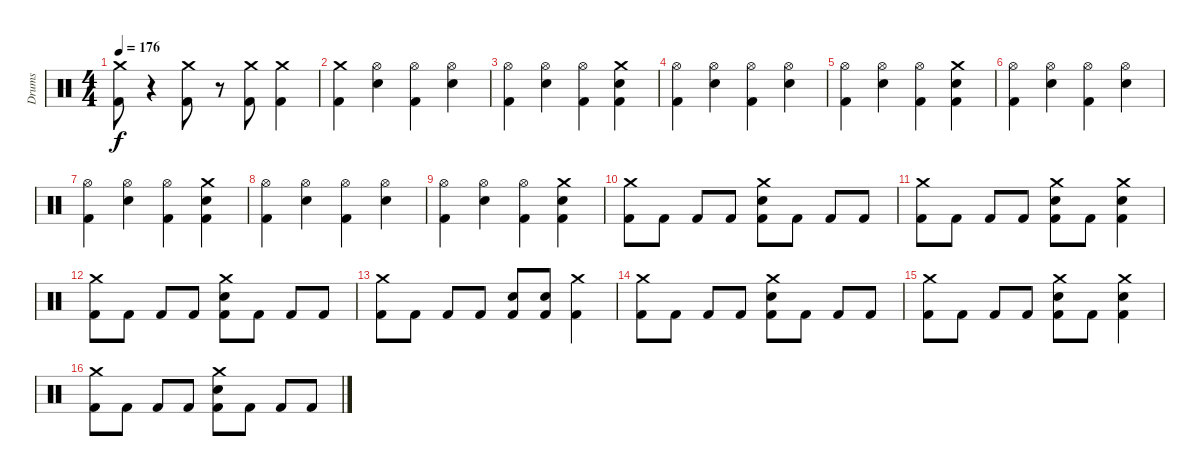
\track ("Drums" "Drums") {instrument percussion}
\staff {score}
\articulation defaults
\ts (4 4)
\tempo 176
\clef neutral
\ks c
("Crash medium (hit)" "Kick (hit) 2").8{dy f} r.4 ("Crash medium (hit)" "Kick (hit) 2").8 r.8 ("Crash medium (hit)" "Kick (hit) 2").8 ("Crash medium (hit)" "Kick (hit) 2").4 |
("Crash medium (hit)" "Kick (hit) 2").4 ("Hi-Hat (open)" "Snare (hit) 2").4 ("Hi-Hat (open)" "Kick (hit) 2").4 ("Hi-Hat (open)" "Snare (hit) 2").4 |
("Hi-Hat (open)" "Kick (hit) 2").4 ("Hi-Hat (open)" "Snare (hit) 2").4 ("Hi-Hat (open)" "Kick (hit) 2").4 ("Crash medium (hit)" "Snare (hit) 2" "Kick (hit) 2").4 |
("Hi-Hat (open)" "Kick (hit) 2").4 ("Hi-Hat (open)" "Snare (hit) 2").4 ("Hi-Hat (open)" "Kick (hit) 2").4 ("Hi-Hat (open)" "Snare (hit) 2").4 |
("Hi-Hat (open)" "Kick (hit) 2").4 ("Hi-Hat (open)" "Snare (hit) 2").4 ("Hi-Hat (open)" "Kick (hit) 2").4 ("Crash medium (hit)" "Snare (hit) 2" "Kick (hit) 2").4 |
("Hi-Hat (open)" "Kick (hit) 2").4 ("Hi-Hat (open)" "Snare (hit) 2").4 ("Hi-Hat (open)" "Kick (hit) 2").4 ("Hi-Hat (open)" "Snare (hit) 2").4 |
("Hi-Hat (open)" "Kick (hit) 2").4 ("Hi-Hat (open)" "Snare (hit) 2").4 ("Hi-Hat (open)" "Kick (hit) 2").4 ("Crash medium (hit)" "Snare (hit) 2" "Kick (hit) 2").4 |
("Hi-Hat (open)" "Kick (hit) 2").4 ("Hi-Hat (open)" "Snare (hit) 2").4 ("Hi-Hat (open)" "Kick (hit) 2").4 ("Hi-Hat (open)" "Snare (hit) 2").4 |
("Hi-Hat (open)" "Kick (hit) 2").4 ("Hi-Hat (open)" "Snare (hit) 2").4 ("Hi-Hat (open)" "Kick (hit) 2").4 ("Crash medium (hit)" "Snare (hit) 2" "Kick (hit) 2").4 |
("Crash medium (hit)" "Kick (hit) 2").8 "Kick (hit) 2".8 "Kick (hit) 2".8 "Kick (hit) 2".8 ("Crash medium (hit)" "Snare (hit) 2" "Kick (hit) 2").8 "Kick (hit) 2".8 "Kick (hit) 2".8 "Kick (hit) 2".8 |
("Crash medium (hit)" "Kick (hit) 2").8 "Kick (hit) 2".8 "Kick (hit) 2".8 "Kick (hit) 2".8 ("Crash medium (hit)" "Snare (hit) 2" "Kick (hit) 2").8 "Kick (hit) 2".8 ("Crash medium (hit)" "Snare (hit) 2" "Kick (hit) 2").4 |
("Crash medium (hit)" "Kick (hit) 2").8 "Kick (hit) 2".8 "Kick (hit) 2".8 "Kick (hit) 2".8 ("Crash medium (hit)" "Snare (hit) 2" "Kick (hit) 2").8 "Kick (hit) 2".8 "Kick (hit) 2".8 "Kick (hit) 2".8 |
("Crash medium (hit)" "Kick (hit) 2").8 "Kick (hit) 2".8 "Kick (hit) 2".8 "Kick (hit) 2".8 ("Snare (hit) 2" "Kick (hit) 2").8 ("Snare (hit) 2" "Kick (hit) 2").8 ("Crash medium (hit)" "Kick (hit) 2").4 |
("Crash medium (hit)" "Kick (hit) 2").8 "Kick (hit) 2".8 "Kick (hit) 2".8 "Kick (hit) 2".8 ("Crash medium (hit)" "Snare (hit) 2" "Kick (hit) 2").8 "Kick (hit) 2".8 "Kick (hit) 2".8 "Kick (hit) 2".8 |
("Crash medium (hit)" "Kick (hit) 2").8 "Kick (hit) 2".8 "Kick (hit) 2".8 "Kick (hit) 2".8 ("Crash medium (hit)" "Snare (hit) 2" "Kick (hit) 2").8 "Kick (hit) 2".8 ("Crash medium (hit)" "Snare (hit) 2" "Kick (hit) 2").4 |
("Crash medium (hit)" "Kick (hit) 2").8 "Kick (hit) 2".8 "Kick (hit) 2".8 "Kick (hit) 2".8 ("Crash medium (hit)" "Snare (hit) 2" "Kick (hit) 2").8 "Kick (hit) 2".8 "Kick (hit) 2".8 "Kick (hit) 2".8
